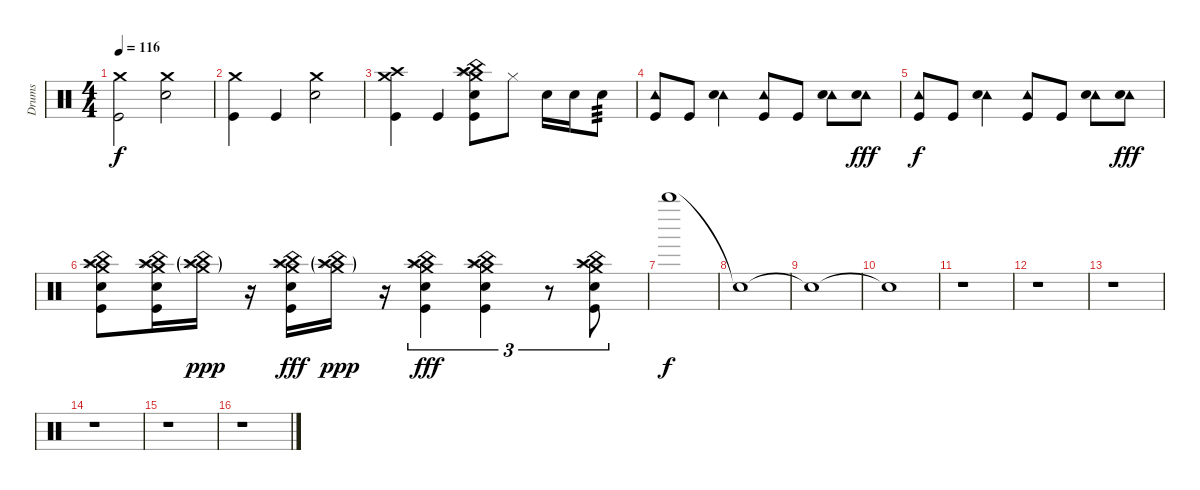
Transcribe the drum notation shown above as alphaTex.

\track ("Drums" "Drums") {instrument percussion}
\staff {score}
\articulation defaults
\ts (4 4)
\tempo 116
\clef neutral
\ks c
("Crash medium (hit)" "Kick (hit)").2{dy f} ("Crash medium (hit)" "Electric Snare (hit)").2 |
("Crash medium (hit)" "Kick (hit)").4 "Kick (hit)".4 ("Crash medium (hit)" "Electric Snare (hit)").2 |
("Crash medium (hit)" "Crash high (hit)" "Kick (hit)").4 "Kick (hit)".4 ("Crash medium (hit)" "Crash high (hit)" "China (hit)" "Splash (hit)" "Electric Snare (hit)" "Kick (hit)").8 "Hi-Hat (closed)".8 "Electric Snare (hit)".16 "Electric Snare (hit)".16 "Electric Snare (hit)".8{tp 3} |
("Tambourine (hit)" "Kick (hit)").8 "Kick (hit)".8 ("Tambourine (hit)" "Electric Snare (hit)").4 ("Tambourine (hit)" "Kick (hit)").8 "Kick (hit)".8 ("Tambourine (hit)" "Electric Snare (hit)").8 ("Tambourine (hit)" "Electric Snare (hit)").8{dy fff} |
("Tambourine (hit)" "Kick (hit)").8{dy f} "Kick (hit)".8 ("Tambourine (hit)" "Electric Snare (hit)").4 ("Tambourine (hit)" "Kick (hit)").8 "Kick (hit)".8 ("Tambourine (hit)" "Electric Snare (hit)").8 ("Tambourine (hit)" "Electric Snare (hit)").8{dy fff} |
("Crash medium (hit)" "Crash high (hit)" "China (hit)" "Splash (hit)" "Electric Snare (hit)" "Kick (hit)").8 ("Crash medium (hit)" "Crash high (hit)" "China (hit)" "Splash (hit)" "Electric Snare (hit)" "Kick (hit)").16 ("Crash medium (hit)"{g} "Crash high (hit)"{g} "China (hit)"{g} "Splash (hit)"{g}).16{dy ppp} r.16 ("Crash medium (hit)" "Crash high (hit)" "China (hit)" "Splash (hit)" "Electric Snare (hit)" "Kick (hit)").16{dy fff} ("Crash medium (hit)"{g} "Crash high (hit)"{g} "China (hit)"{g} "Splash (hit)"{g}).16{dy ppp} r.16 ("Crash medium (hit)" "Crash high (hit)" "China (hit)" "Splash (hit)" "Electric Snare (hit)" "Kick (hit)").4{tu (3 2) dy fff} ("Crash medium (hit)" "Crash high (hit)" "China (hit)" "Splash (hit)" "Electric Snare (hit)" "Kick (hit)").4{tu (3 2)} r.8{tu (3 2)} ("Crash medium (hit)" "Crash high (hit)" "China (hit)" "Splash (hit)" "Electric Snare (hit)" "Kick (hit)").8{tu (3 2)} |
"Whistle high (hit)".1{dy f} |
"Snare (hit)"{t}.1 |
"Snare (hit)"{t}.1 |
"Snare (hit)"{t}.1 |
r.1 |
r.1 |
r.1 |
r.1 |
r.1 |
r.1
